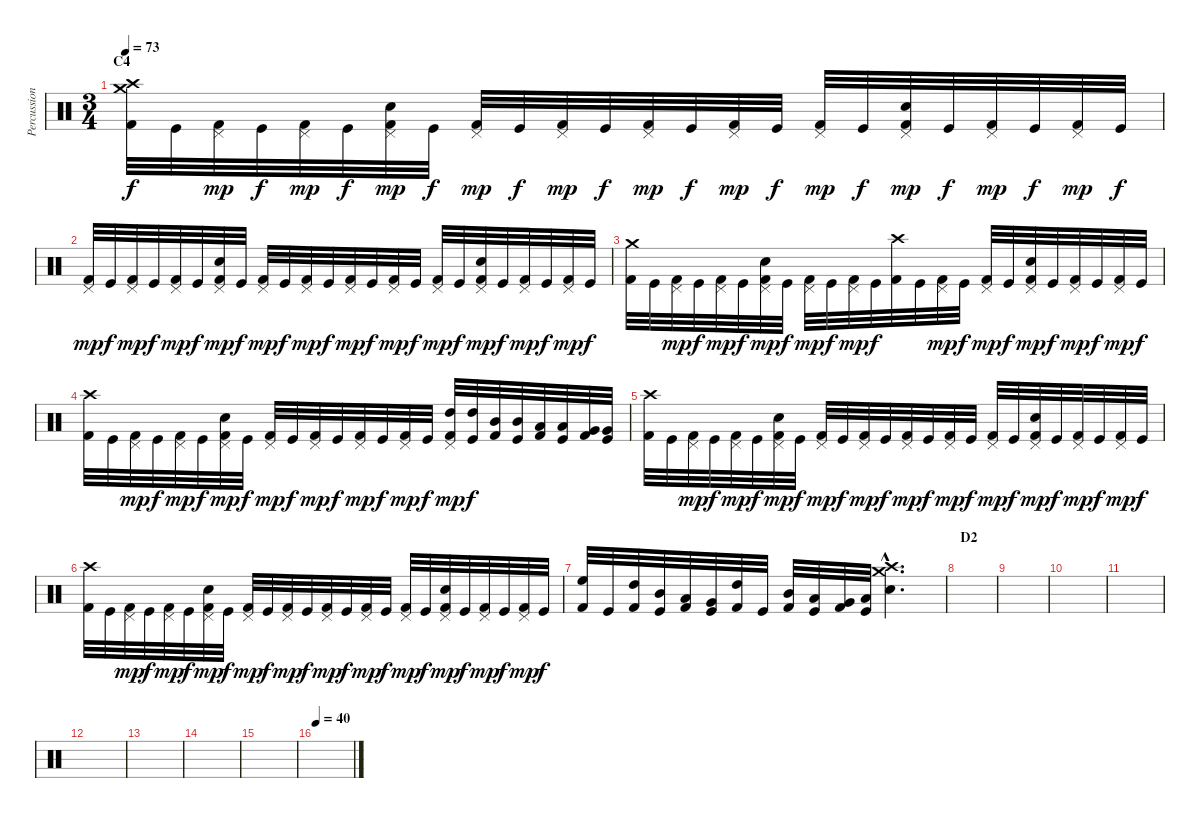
\track ("Percussion" "Percussion") {instrument percussion}
\staff {score}
\articulation defaults
\ts (3 4)
\section ("" "C4")
\tempo 73
\clef neutral
\ks c
("Crash medium (hit)" "Crash high (hit)" "Kick (hit) 2").32{dy f} "Kick (hit)".32 ("Pedal Hi-Hat (hit)" "Kick (hit) 2").32{dy mp} "Kick (hit)".32{dy f} ("Pedal Hi-Hat (hit)" "Kick (hit) 2").32{dy mp} "Kick (hit)".32{dy f} ("Pedal Hi-Hat (hit)" "Electric Snare (hit)" "Kick (hit) 2").32{dy mp} "Kick (hit)".32{dy f} ("Pedal Hi-Hat (hit)" "Kick (hit) 2").32{dy mp} "Kick (hit)".32{dy f} ("Pedal Hi-Hat (hit)" "Kick (hit) 2").32{dy mp} "Kick (hit)".32{dy f} ("Pedal Hi-Hat (hit)" "Kick (hit) 2").32{dy mp} "Kick (hit)".32{dy f} ("Pedal Hi-Hat (hit)" "Kick (hit) 2").32{dy mp} "Kick (hit)".32{dy f} ("Pedal Hi-Hat (hit)" "Kick (hit) 2").32{dy mp} "Kick (hit)".32{dy f} ("Pedal Hi-Hat (hit)" "Electric Snare (hit)" "Kick (hit) 2").32{dy mp} "Kick (hit)".32{dy f} ("Pedal Hi-Hat (hit)" "Kick (hit) 2").32{dy mp} "Kick (hit)".32{dy f} ("Pedal Hi-Hat (hit)" "Kick (hit) 2").32{dy mp} "Kick (hit)".32{dy f} |
("Pedal Hi-Hat (hit)" "Kick (hit) 2").32{dy mp} "Kick (hit)".32{dy f} ("Pedal Hi-Hat (hit)" "Kick (hit) 2").32{dy mp} "Kick (hit)".32{dy f} ("Pedal Hi-Hat (hit)" "Kick (hit) 2").32{dy mp} "Kick (hit)".32{dy f} ("Pedal Hi-Hat (hit)" "Electric Snare (hit)" "Kick (hit) 2").32{dy mp} "Kick (hit)".32{dy f} ("Pedal Hi-Hat (hit)" "Kick (hit) 2").32{dy mp} "Kick (hit)".32{dy f} ("Pedal Hi-Hat (hit)" "Kick (hit) 2").32{dy mp} "Kick (hit)".32{dy f} ("Pedal Hi-Hat (hit)" "Kick (hit) 2").32{dy mp} "Kick (hit)".32{dy f} ("Pedal Hi-Hat (hit)" "Kick (hit) 2").32{dy mp} "Kick (hit)".32{dy f} ("Pedal Hi-Hat (hit)" "Kick (hit) 2").32{dy mp} "Kick (hit)".32{dy f} ("Pedal Hi-Hat (hit)" "Electric Snare (hit)" "Kick (hit) 2").32{dy mp} "Kick (hit)".32{dy f} ("Pedal Hi-Hat (hit)" "Kick (hit) 2").32{dy mp} "Kick (hit)".32{dy f} ("Pedal Hi-Hat (hit)" "Kick (hit) 2").32{dy mp} "Kick (hit)".32{dy f} |
("Crash medium (hit)" "Kick (hit) 2").32 "Kick (hit)".32 ("Pedal Hi-Hat (hit)" "Kick (hit) 2").32{dy mp} "Kick (hit)".32{dy f} ("Pedal Hi-Hat (hit)" "Kick (hit) 2").32{dy mp} "Kick (hit)".32{dy f} ("Pedal Hi-Hat (hit)" "Electric Snare (hit)" "Kick (hit) 2").32{dy mp} "Kick (hit)".32{dy f} ("Pedal Hi-Hat (hit)" "Kick (hit) 2").32{dy mp} "Kick (hit)".32{dy f} ("Pedal Hi-Hat (hit)" "Kick (hit) 2").32{dy mp} "Kick (hit)".32{dy f} ("Crash high (hit)" "Kick (hit) 2").32 "Kick (hit)".32 ("Pedal Hi-Hat (hit)" "Kick (hit) 2").32{dy mp} "Kick (hit)".32{dy f} ("Pedal Hi-Hat (hit)" "Kick (hit) 2").32{dy mp} "Kick (hit)".32{dy f} ("Pedal Hi-Hat (hit)" "Electric Snare (hit)" "Kick (hit) 2").32{dy mp} "Kick (hit)".32{dy f} ("Pedal Hi-Hat (hit)" "Kick (hit) 2").32{dy mp} "Kick (hit)".32{dy f} ("Pedal Hi-Hat (hit)" "Kick (hit) 2").32{dy mp} "Kick (hit)".32{dy f} |
("Crash high (hit)" "Kick (hit) 2").32 "Kick (hit)".32 ("Pedal Hi-Hat (hit)" "Kick (hit) 2").32{dy mp} "Kick (hit)".32{dy f} ("Pedal Hi-Hat (hit)" "Kick (hit) 2").32{dy mp} "Kick (hit)".32{dy f} ("Pedal Hi-Hat (hit)" "Electric Snare (hit)" "Kick (hit) 2").32{dy mp} "Kick (hit)".32{dy f} ("Pedal Hi-Hat (hit)" "Kick (hit) 2").32{dy mp} "Kick (hit)".32{dy f} ("Pedal Hi-Hat (hit)" "Kick (hit) 2").32{dy mp} "Kick (hit)".32{dy f} ("Pedal Hi-Hat (hit)" "Kick (hit) 2").32{dy mp} "Kick (hit)".32{dy f} ("Pedal Hi-Hat (hit)" "Kick (hit) 2").32{dy mp} "Kick (hit)".32{dy f} ("Pedal Hi-Hat (hit)" "High Tom (hit)" "Kick (hit) 2").32{dy mp} ("High Tom (hit)" "Kick (hit)").32{dy f} ("Mid Tom (hit)" "Kick (hit) 2").32 ("Mid Tom (hit)" "Kick (hit)").32 ("Low Tom (hit)" "Kick (hit) 2").32 ("Low Tom (hit)" "Kick (hit)").32 ("Very Low Tom (hit)" "Kick (hit) 2").32 ("Very Low Tom (hit)" "Kick (hit)").32 |
("Crash high (hit)" "Kick (hit) 2").32 "Kick (hit)".32 ("Pedal Hi-Hat (hit)" "Kick (hit) 2").32{dy mp} "Kick (hit)".32{dy f} ("Pedal Hi-Hat (hit)" "Kick (hit) 2").32{dy mp} "Kick (hit)".32{dy f} ("Pedal Hi-Hat (hit)" "Electric Snare (hit)" "Kick (hit) 2").32{dy mp} "Kick (hit)".32{dy f} ("Pedal Hi-Hat (hit)" "Kick (hit) 2").32{dy mp} "Kick (hit)".32{dy f} ("Pedal Hi-Hat (hit)" "Kick (hit) 2").32{dy mp} "Kick (hit)".32{dy f} ("Pedal Hi-Hat (hit)" "Kick (hit) 2").32{dy mp} "Kick (hit)".32{dy f} ("Pedal Hi-Hat (hit)" "Kick (hit) 2").32{dy mp} "Kick (hit)".32{dy f} ("Pedal Hi-Hat (hit)" "Kick (hit) 2").32{dy mp} "Kick (hit)".32{dy f} ("Pedal Hi-Hat (hit)" "Electric Snare (hit)" "Kick (hit) 2").32{dy mp} "Kick (hit)".32{dy f} ("Pedal Hi-Hat (hit)" "Kick (hit) 2").32{dy mp} "Kick (hit)".32{dy f} ("Pedal Hi-Hat (hit)" "Kick (hit) 2").32{dy mp} "Kick (hit)".32{dy f} |
("Crash high (hit)" "Kick (hit) 2").32 "Kick (hit)".32 ("Pedal Hi-Hat (hit)" "Kick (hit) 2").32{dy mp} "Kick (hit)".32{dy f} ("Pedal Hi-Hat (hit)" "Kick (hit) 2").32{dy mp} "Kick (hit)".32{dy f} ("Pedal Hi-Hat (hit)" "Electric Snare (hit)" "Kick (hit) 2").32{dy mp} "Kick (hit)".32{dy f} ("Pedal Hi-Hat (hit)" "Kick (hit) 2").32{dy mp} "Kick (hit)".32{dy f} ("Pedal Hi-Hat (hit)" "Kick (hit) 2").32{dy mp} "Kick (hit)".32{dy f} ("Pedal Hi-Hat (hit)" "Kick (hit) 2").32{dy mp} "Kick (hit)".32{dy f} ("Pedal Hi-Hat (hit)" "Kick (hit) 2").32{dy mp} "Kick (hit)".32{dy f} ("Pedal Hi-Hat (hit)" "Kick (hit) 2").32{dy mp} "Kick (hit)".32{dy f} ("Pedal Hi-Hat (hit)" "Electric Snare (hit)" "Kick (hit) 2").32{dy mp} "Kick (hit)".32{dy f} ("Pedal Hi-Hat (hit)" "Kick (hit) 2").32{dy mp} "Kick (hit)".32{dy f} ("Pedal Hi-Hat (hit)" "Kick (hit) 2").32{dy mp} "Kick (hit)".32{dy f} |
("High Floor Tom (hit)" "Kick (hit) 2").32 "Kick (hit)".32 ("High Tom (hit)" "Kick (hit) 2").32 ("Mid Tom (hit)" "Kick (hit)").32 ("Low Tom (hit)" "Kick (hit) 2").32 ("Very Low Tom (hit)" "Kick (hit)").32 ("High Tom (hit)" "Kick (hit) 2").32 "Kick (hit)".32 ("Mid Tom (hit)" "Kick (hit) 2").32 ("Low Tom (hit)" "Kick (hit)").32 ("Very Low Tom (hit)" "Kick (hit) 2").32 ("Low Floor Tom (hit)" "Kick (hit)").32 ("Crash medium (hit)"{hac} "Crash high (hit)"{hac} "Electric Snare (hit)"{hac}).4{d} |
\section ("" "D2")
|
|
|
|
|
|
|
|
\tempo 40
